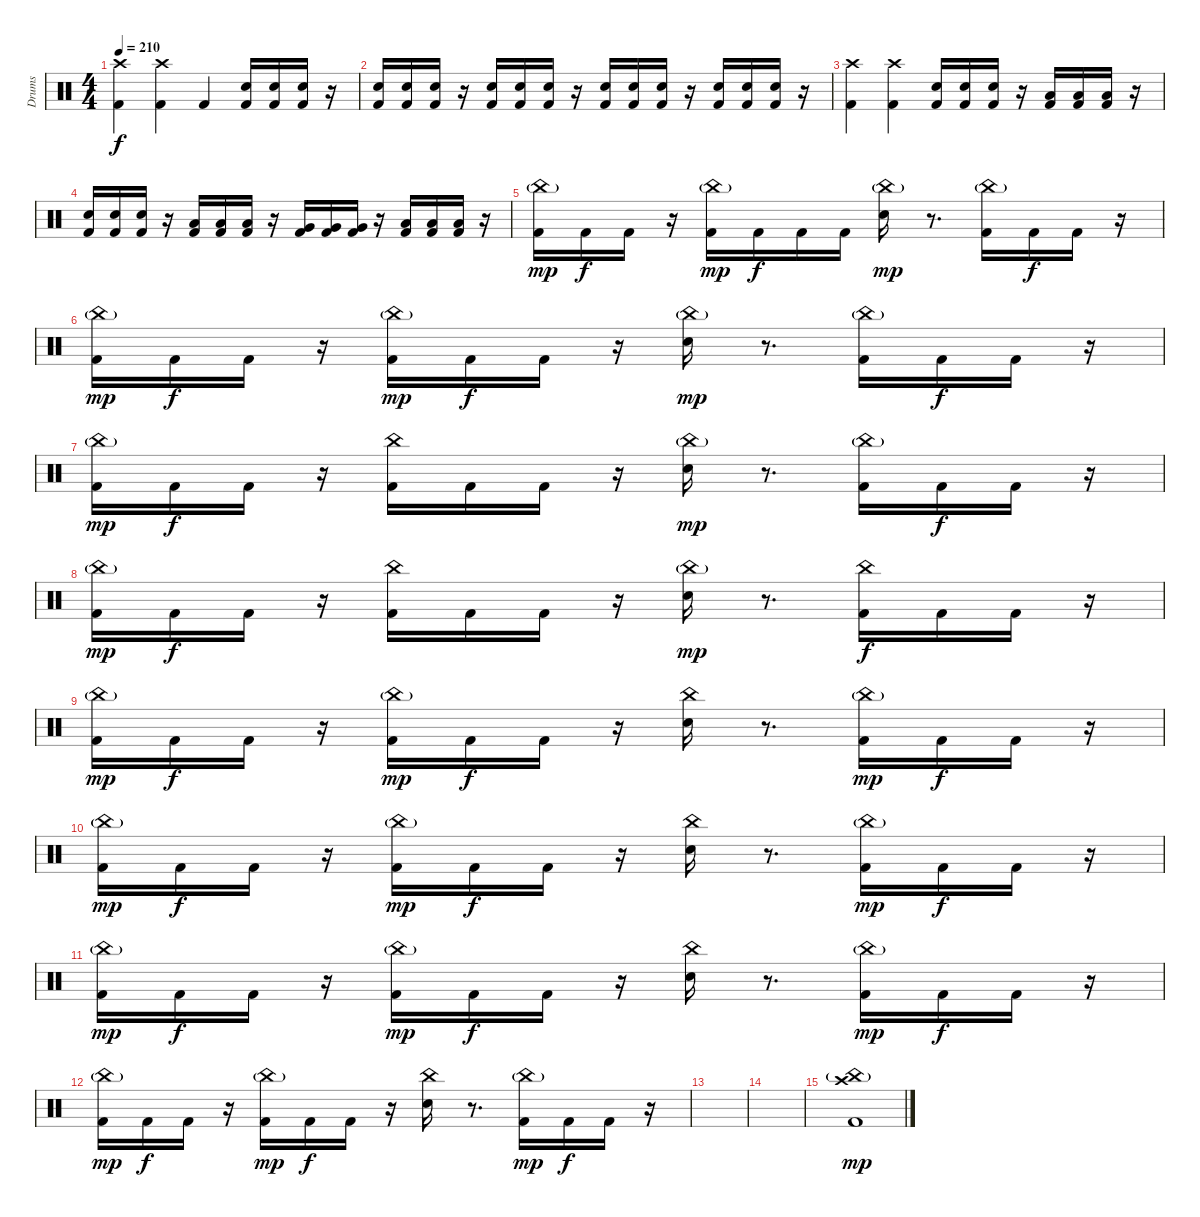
\track ("Drums" "Drums") {instrument percussion}
\staff {score}
\articulation defaults
\ts (4 4)
\tempo 210
\clef neutral
\ks c
("Crash high (hit)" "Kick (hit) 2").4{dy f} ("Crash high (hit)" "Kick (hit) 2").4 "Kick (hit) 2".4 ("Electric Snare (hit)" "Kick (hit) 2").16 ("Electric Snare (hit)" "Kick (hit) 2").16 ("Electric Snare (hit)" "Kick (hit) 2").16 r.16 |
("Electric Snare (hit)" "Kick (hit) 2").16 ("Electric Snare (hit)" "Kick (hit) 2").16 ("Electric Snare (hit)" "Kick (hit) 2").16 r.16 ("Electric Snare (hit)" "Kick (hit) 2").16 ("Electric Snare (hit)" "Kick (hit) 2").16 ("Electric Snare (hit)" "Kick (hit) 2").16 r.16 ("Electric Snare (hit)" "Kick (hit) 2").16 ("Electric Snare (hit)" "Kick (hit) 2").16 ("Electric Snare (hit)" "Kick (hit) 2").16 r.16 ("Electric Snare (hit)" "Kick (hit) 2").16 ("Electric Snare (hit)" "Kick (hit) 2").16 ("Electric Snare (hit)" "Kick (hit) 2").16 r.16 |
("Crash high (hit)" "Kick (hit) 2").4 ("Crash high (hit)" "Kick (hit) 2").4 ("Electric Snare (hit)" "Kick (hit) 2").16 ("Electric Snare (hit)" "Kick (hit) 2").16 ("Electric Snare (hit)" "Kick (hit) 2").16 r.16 ("Low Tom (hit)" "Kick (hit) 2").16 ("Low Tom (hit)" "Kick (hit) 2").16 ("Low Tom (hit)" "Kick (hit) 2").16 r.16 |
("Electric Snare (hit)" "Kick (hit) 2").16 ("Electric Snare (hit)" "Kick (hit) 2").16 ("Electric Snare (hit)" "Kick (hit) 2").16 r.16 ("Low Tom (hit)" "Kick (hit) 2").16 ("Low Tom (hit)" "Kick (hit) 2").16 ("Low Tom (hit)" "Kick (hit) 2").16 r.16 ("Very Low Tom (hit)" "Kick (hit) 2").16 ("Very Low Tom (hit)" "Kick (hit) 2").16 ("Very Low Tom (hit)" "Kick (hit) 2").16 r.16 ("Low Floor Tom (hit)" "Kick (hit) 2").16 ("Low Floor Tom (hit)" "Kick (hit) 2").16 ("Low Floor Tom (hit)" "Kick (hit) 2").16 r.16 |
("China (hit)"{g} "Kick (hit) 2").16{dy mp} "Kick (hit) 2".16{dy f} "Kick (hit) 2".16 r.16 ("China (hit)"{g} "Kick (hit) 2").16{dy mp} "Kick (hit) 2".16{dy f} "Kick (hit) 2".16 "Kick (hit) 2".16 ("China (hit)"{g} "Electric Snare (hit)").16{dy mp} r.8{d} ("China (hit)"{g} "Kick (hit) 2").16 "Kick (hit) 2".16{dy f} "Kick (hit) 2".16 r.16 |
("China (hit)"{g} "Kick (hit) 2").16{dy mp} "Kick (hit) 2".16{dy f} "Kick (hit) 2".16 r.16 ("China (hit)"{g} "Kick (hit) 2").16{dy mp} "Kick (hit) 2".16{dy f} "Kick (hit) 2".16 r.16 ("China (hit)"{g} "Electric Snare (hit)").16{dy mp} r.8{d} ("China (hit)"{g} "Kick (hit) 2").16 "Kick (hit) 2".16{dy f} "Kick (hit) 2".16 r.16 |
("China (hit)"{g} "Kick (hit) 2").16{dy mp} "Kick (hit) 2".16{dy f} "Kick (hit) 2".16 r.16 ("China (hit)" "Kick (hit) 2").16 "Kick (hit) 2".16 "Kick (hit) 2".16 r.16 ("China (hit)"{g} "Electric Snare (hit)").16{dy mp} r.8{d} ("China (hit)"{g} "Kick (hit) 2").16 "Kick (hit) 2".16{dy f} "Kick (hit) 2".16 r.16 |
("China (hit)"{g} "Kick (hit) 2").16{dy mp} "Kick (hit) 2".16{dy f} "Kick (hit) 2".16 r.16 ("China (hit)" "Kick (hit) 2").16 "Kick (hit) 2".16 "Kick (hit) 2".16 r.16 ("China (hit)"{g} "Electric Snare (hit)").16{dy mp} r.8{d} ("China (hit)" "Kick (hit) 2").16{dy f} "Kick (hit) 2".16 "Kick (hit) 2".16 r.16 |
("China (hit)"{g} "Kick (hit) 2").16{dy mp} "Kick (hit) 2".16{dy f} "Kick (hit) 2".16 r.16 ("China (hit)"{g} "Kick (hit) 2").16{dy mp} "Kick (hit) 2".16{dy f} "Kick (hit) 2".16 r.16 ("China (hit)" "Electric Snare (hit)").16 r.8{d} ("China (hit)"{g} "Kick (hit) 2").16{dy mp} "Kick (hit) 2".16{dy f} "Kick (hit) 2".16 r.16 |
("China (hit)"{g} "Kick (hit) 2").16{dy mp} "Kick (hit) 2".16{dy f} "Kick (hit) 2".16 r.16 ("China (hit)"{g} "Kick (hit) 2").16{dy mp} "Kick (hit) 2".16{dy f} "Kick (hit) 2".16 r.16 ("China (hit)" "Electric Snare (hit)").16 r.8{d} ("China (hit)"{g} "Kick (hit) 2").16{dy mp} "Kick (hit) 2".16{dy f} "Kick (hit) 2".16 r.16 |
("China (hit)"{g} "Kick (hit) 2").16{dy mp} "Kick (hit) 2".16{dy f} "Kick (hit) 2".16 r.16 ("China (hit)"{g} "Kick (hit) 2").16{dy mp} "Kick (hit) 2".16{dy f} "Kick (hit) 2".16 r.16 ("China (hit)" "Electric Snare (hit)").16 r.8{d} ("China (hit)"{g} "Kick (hit) 2").16{dy mp} "Kick (hit) 2".16{dy f} "Kick (hit) 2".16 r.16 |
("China (hit)"{g} "Kick (hit) 2").16{dy mp} "Kick (hit) 2".16{dy f} "Kick (hit) 2".16 r.16 ("China (hit)"{g} "Kick (hit) 2").16{dy mp} "Kick (hit) 2".16{dy f} "Kick (hit) 2".16 r.16 ("China (hit)" "Electric Snare (hit)").16 r.8{d} ("China (hit)"{g} "Kick (hit) 2").16{dy mp} "Kick (hit) 2".16{dy f} "Kick (hit) 2".16 r.16 |
|
|
("Crash high (hit)" "China (hit)"{g} "Kick (hit) 2").1{dy mp}
